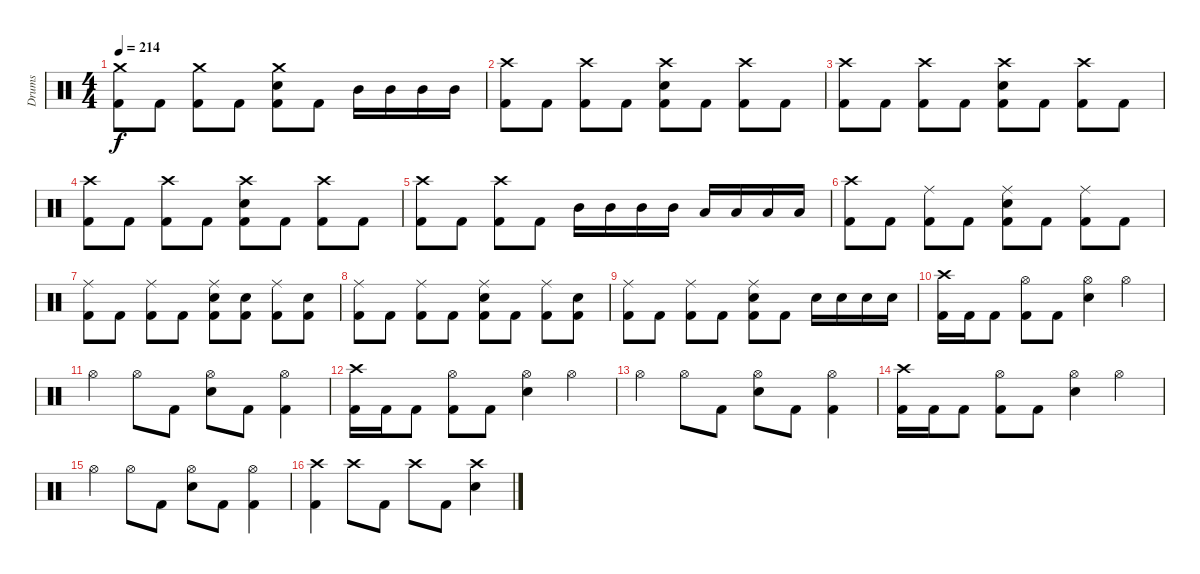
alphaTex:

\track ("Drums" "Drums") {instrument percussion}
\staff {score}
\articulation defaults
\ts (4 4)
\tempo 214
\clef neutral
\ks c
("Crash medium (hit)" "Kick (hit) 2").8{dy f} "Kick (hit) 2".8 ("Crash medium (hit)" "Kick (hit) 2").8 "Kick (hit) 2".8 ("Crash medium (hit)" "Snare (hit) 2" "Kick (hit) 2").8 "Kick (hit) 2".8 "Mid Tom (hit)".16 "Mid Tom (hit)".16 "Mid Tom (hit)".16 "Mid Tom (hit)".16 |
("Crash high (hit)" "Kick (hit) 2").8 "Kick (hit) 2".8 ("Crash high (hit)" "Kick (hit) 2").8 "Kick (hit) 2".8 ("Crash high (hit)" "Snare (hit) 2" "Kick (hit) 2").8 "Kick (hit) 2".8 ("Crash high (hit)" "Kick (hit) 2").8 "Kick (hit) 2".8 |
("Crash high (hit)" "Kick (hit) 2").8 "Kick (hit) 2".8 ("Crash high (hit)" "Kick (hit) 2").8 "Kick (hit) 2".8 ("Crash high (hit)" "Snare (hit) 2" "Kick (hit) 2").8 "Kick (hit) 2".8 ("Crash high (hit)" "Kick (hit) 2").8 "Kick (hit) 2".8 |
("Crash high (hit)" "Kick (hit) 2").8 "Kick (hit) 2".8 ("Crash high (hit)" "Kick (hit) 2").8 "Kick (hit) 2".8 ("Crash high (hit)" "Snare (hit) 2" "Kick (hit) 2").8 "Kick (hit) 2".8 ("Crash high (hit)" "Kick (hit) 2").8 "Kick (hit) 2".8 |
("Crash high (hit)" "Kick (hit) 2").8 "Kick (hit) 2".8 ("Crash high (hit)" "Kick (hit) 2").8 "Kick (hit) 2".8 "Mid Tom (hit)".16 "Mid Tom (hit)".16 "Mid Tom (hit)".16 "Mid Tom (hit)".16 "Low Tom (hit)".16 "Low Tom (hit)".16 "Low Tom (hit)".16 "Low Tom (hit)".16 |
("Crash high (hit)" "Kick (hit) 2").8 "Kick (hit) 2".8 ("Ride (middle)" "Kick (hit) 2").8 "Kick (hit) 2".8 ("Ride (middle)" "Snare (hit) 2" "Kick (hit) 2").8 "Kick (hit) 2".8 ("Ride (middle)" "Kick (hit) 2").8 "Kick (hit) 2".8 |
("Ride (middle)" "Kick (hit) 2").8 "Kick (hit) 2".8 ("Ride (middle)" "Kick (hit) 2").8 "Kick (hit) 2".8 ("Ride (middle)" "Snare (hit) 2" "Kick (hit) 2").8 ("Snare (hit) 2" "Kick (hit) 2").8 ("Ride (middle)" "Kick (hit) 2").8 ("Snare (hit) 2" "Kick (hit) 2").8 |
("Ride (middle)" "Kick (hit) 2").8 "Kick (hit) 2".8 ("Ride (middle)" "Kick (hit) 2").8 "Kick (hit) 2".8 ("Ride (middle)" "Snare (hit) 2" "Kick (hit) 2").8 "Kick (hit) 2".8 ("Ride (middle)" "Kick (hit) 2").8 ("Snare (hit) 2" "Kick (hit) 2").8 |
("Ride (middle)" "Kick (hit) 2").8 "Kick (hit) 2".8 ("Ride (middle)" "Kick (hit) 2").8 "Kick (hit) 2".8 ("Ride (middle)" "Snare (hit) 2" "Kick (hit) 2").8 "Kick (hit) 2".8 "Snare (hit) 2".16 "Snare (hit) 2".16 "Snare (hit) 2".16 "Snare (hit) 2".16 |
("Crash high (hit)" "Kick (hit) 2").16 "Kick (hit) 2".16 "Kick (hit) 2".8 ("Hi-Hat (open)" "Kick (hit) 2").8 "Kick (hit) 2".8 ("Hi-Hat (open)" "Snare (hit) 2").4 "Hi-Hat (open)".4 |
"Hi-Hat (open)".4 "Hi-Hat (open)".8 "Kick (hit) 2".8 ("Hi-Hat (open)" "Snare (hit) 2").8 "Kick (hit) 2".8 ("Hi-Hat (open)" "Kick (hit) 2").4 |
("Crash high (hit)" "Kick (hit) 2").16 "Kick (hit) 2".16 "Kick (hit) 2".8 ("Hi-Hat (open)" "Kick (hit) 2").8 "Kick (hit) 2".8 ("Hi-Hat (open)" "Snare (hit) 2").4 "Hi-Hat (open)".4 |
"Hi-Hat (open)".4 "Hi-Hat (open)".8 "Kick (hit) 2".8 ("Hi-Hat (open)" "Snare (hit) 2").8 "Kick (hit) 2".8 ("Hi-Hat (open)" "Kick (hit) 2").4 |
("Crash high (hit)" "Kick (hit) 2").16 "Kick (hit) 2".16 "Kick (hit) 2".8 ("Hi-Hat (open)" "Kick (hit) 2").8 "Kick (hit) 2".8 ("Hi-Hat (open)" "Snare (hit) 2").4 "Hi-Hat (open)".4 |
"Hi-Hat (open)".4 "Hi-Hat (open)".8 "Kick (hit) 2".8 ("Hi-Hat (open)" "Snare (hit) 2").8 "Kick (hit) 2".8 ("Hi-Hat (open)" "Kick (hit) 2").4 |
("Crash high (hit)" "Kick (hit) 2").4 "Crash high (hit)".8 "Kick (hit) 2".8 "Crash high (hit)".8 "Kick (hit) 2".8 ("Crash high (hit)" "Snare (hit) 2").4
